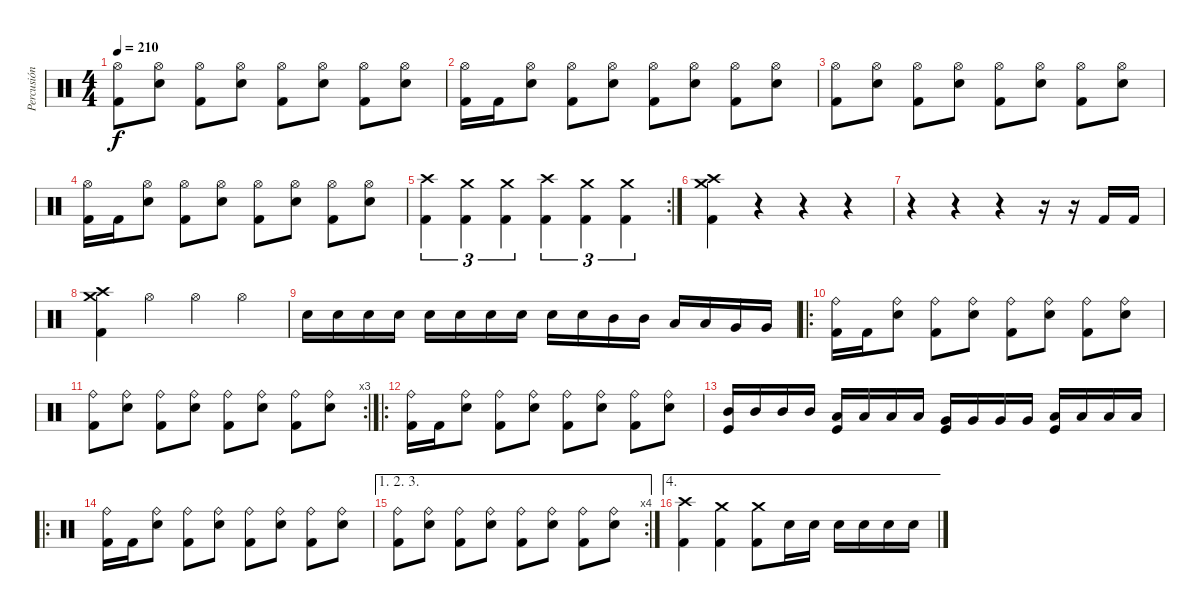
\track ("Percusión" "Percusión") {instrument percussion}
\staff {score}
\articulation defaults
\ts (4 4)
\tempo 210
\clef neutral
\ks c
("Hi-Hat (open)" "Kick (hit) 2").8{dy f} ("Hi-Hat (open)" "Snare (hit) 2").8 ("Hi-Hat (open)" "Kick (hit) 2").8 ("Hi-Hat (open)" "Snare (hit) 2").8 ("Hi-Hat (open)" "Kick (hit) 2").8 ("Hi-Hat (open)" "Snare (hit) 2").8 ("Hi-Hat (open)" "Kick (hit) 2").8 ("Hi-Hat (open)" "Snare (hit) 2").8 |
("Hi-Hat (open)" "Kick (hit) 2").16 "Kick (hit) 2".16 ("Hi-Hat (open)" "Snare (hit) 2").8 ("Hi-Hat (open)" "Kick (hit) 2").8 ("Hi-Hat (open)" "Snare (hit) 2").8 ("Hi-Hat (open)" "Kick (hit) 2").8 ("Hi-Hat (open)" "Snare (hit) 2").8 ("Hi-Hat (open)" "Kick (hit) 2").8 ("Hi-Hat (open)" "Snare (hit) 2").8 |
("Hi-Hat (open)" "Kick (hit) 2").8 ("Hi-Hat (open)" "Snare (hit) 2").8 ("Hi-Hat (open)" "Kick (hit) 2").8 ("Hi-Hat (open)" "Snare (hit) 2").8 ("Hi-Hat (open)" "Kick (hit) 2").8 ("Hi-Hat (open)" "Snare (hit) 2").8 ("Hi-Hat (open)" "Kick (hit) 2").8 ("Hi-Hat (open)" "Snare (hit) 2").8 |
("Hi-Hat (open)" "Kick (hit) 2").16 "Kick (hit) 2".16 ("Hi-Hat (open)" "Snare (hit) 2").8 ("Hi-Hat (open)" "Kick (hit) 2").8 ("Hi-Hat (open)" "Snare (hit) 2").8 ("Hi-Hat (open)" "Kick (hit) 2").8 ("Hi-Hat (open)" "Snare (hit) 2").8 ("Hi-Hat (open)" "Kick (hit) 2").8 ("Hi-Hat (open)" "Snare (hit) 2").8 |
\rc 2
("Crash high (hit)" "Kick (hit) 2").4{tu (3 2)} ("Crash medium (hit)" "Kick (hit) 2").4{tu (3 2)} ("Crash medium (hit)" "Kick (hit) 2").4{tu (3 2)} ("Crash high (hit)" "Kick (hit) 2").4{tu (3 2)} ("Crash medium (hit)" "Kick (hit) 2").4{tu (3 2)} ("Crash medium (hit)" "Kick (hit) 2").4{tu (3 2)} |
("Crash medium (hit)" "Crash high (hit)" "Kick (hit) 2").4 r.4 r.4 r.4 |
r.4 r.4 r.4 r.16 r.16 "Kick (hit) 2".16 "Kick (hit) 2".16 |
("Crash medium (hit)" "Crash high (hit)" "Kick (hit) 2").4 "Hi-Hat (open)".4 "Hi-Hat (open)".4 "Hi-Hat (open)".4 |
"Snare (hit) 2".16 "Snare (hit) 2".16 "Snare (hit) 2".16 "Snare (hit) 2".16 "Snare (hit) 2".16 "Snare (hit) 2".16 "Snare (hit) 2".16 "Snare (hit) 2".16 "Snare (hit) 2".16 "Snare (hit) 2".16 "Mid Tom (hit)".16 "Mid Tom (hit)".16 "Low Tom (hit)".16 "Low Tom (hit)".16 "Very Low Tom (hit)".16 "Very Low Tom (hit)".16 |
\ro
("Ride (bell)" "Kick (hit) 2").16 "Kick (hit) 2".16 ("Ride (bell)" "Snare (hit) 2").8 ("Ride (bell)" "Kick (hit) 2").8 ("Ride (bell)" "Snare (hit) 2").8 ("Ride (bell)" "Kick (hit) 2").8 ("Ride (bell)" "Snare (hit) 2").8 ("Ride (bell)" "Kick (hit) 2").8 ("Ride (bell)" "Snare (hit) 2").8 |
\rc 3
("Ride (bell)" "Kick (hit) 2").8 ("Ride (bell)" "Snare (hit) 2").8 ("Ride (bell)" "Kick (hit) 2").8 ("Ride (bell)" "Snare (hit) 2").8 ("Ride (bell)" "Kick (hit) 2").8 ("Ride (bell)" "Snare (hit) 2").8 ("Ride (bell)" "Kick (hit) 2").8 ("Ride (bell)" "Snare (hit) 2").8 |
\ro
("Ride (bell)" "Kick (hit) 2").16 "Kick (hit) 2".16 ("Ride (bell)" "Snare (hit) 2").8 ("Ride (bell)" "Kick (hit) 2").8 ("Ride (bell)" "Snare (hit) 2").8 ("Ride (bell)" "Kick (hit) 2").8 ("Ride (bell)" "Snare (hit) 2").8 ("Ride (bell)" "Kick (hit) 2").8 ("Ride (bell)" "Snare (hit) 2").8 |
("Mid Tom (hit)" "Kick (hit)").16 "Mid Tom (hit)".16 "Mid Tom (hit)".16 "Mid Tom (hit)".16 ("Low Tom (hit)" "Kick (hit)").16 "Low Tom (hit)".16 "Low Tom (hit)".16 "Low Tom (hit)".16 ("Very Low Tom (hit)" "Kick (hit)").16 "Very Low Tom (hit)".16 "Very Low Tom (hit)".16 "Very Low Tom (hit)".16 ("Low Floor Tom (hit)" "Kick (hit)").16 "Low Floor Tom (hit)".16 "Low Floor Tom (hit)".16 "Low Floor Tom (hit)".16 |
\ro
("Ride (bell)" "Kick (hit) 2").16 "Kick (hit) 2".16 ("Ride (bell)" "Snare (hit) 2").8 ("Ride (bell)" "Kick (hit) 2").8 ("Ride (bell)" "Snare (hit) 2").8 ("Ride (bell)" "Kick (hit) 2").8 ("Ride (bell)" "Snare (hit) 2").8 ("Ride (bell)" "Kick (hit) 2").8 ("Ride (bell)" "Snare (hit) 2").8 |
\ae (1 2 3)
\rc 4
("Ride (bell)" "Kick (hit) 2").8 ("Ride (bell)" "Snare (hit) 2").8 ("Ride (bell)" "Kick (hit) 2").8 ("Ride (bell)" "Snare (hit) 2").8 ("Ride (bell)" "Kick (hit) 2").8 ("Ride (bell)" "Snare (hit) 2").8 ("Ride (bell)" "Kick (hit) 2").8 ("Ride (bell)" "Snare (hit) 2").8 |
\ae 4
("Crash high (hit)" "Kick (hit) 2").4 ("Crash medium (hit)" "Kick (hit) 2").4 ("Crash medium (hit)" "Kick (hit) 2").8 "Snare (hit) 2".16 "Snare (hit) 2".16 "Snare (hit) 2".16 "Snare (hit) 2".16 "Snare (hit) 2".16 "Snare (hit) 2".16
